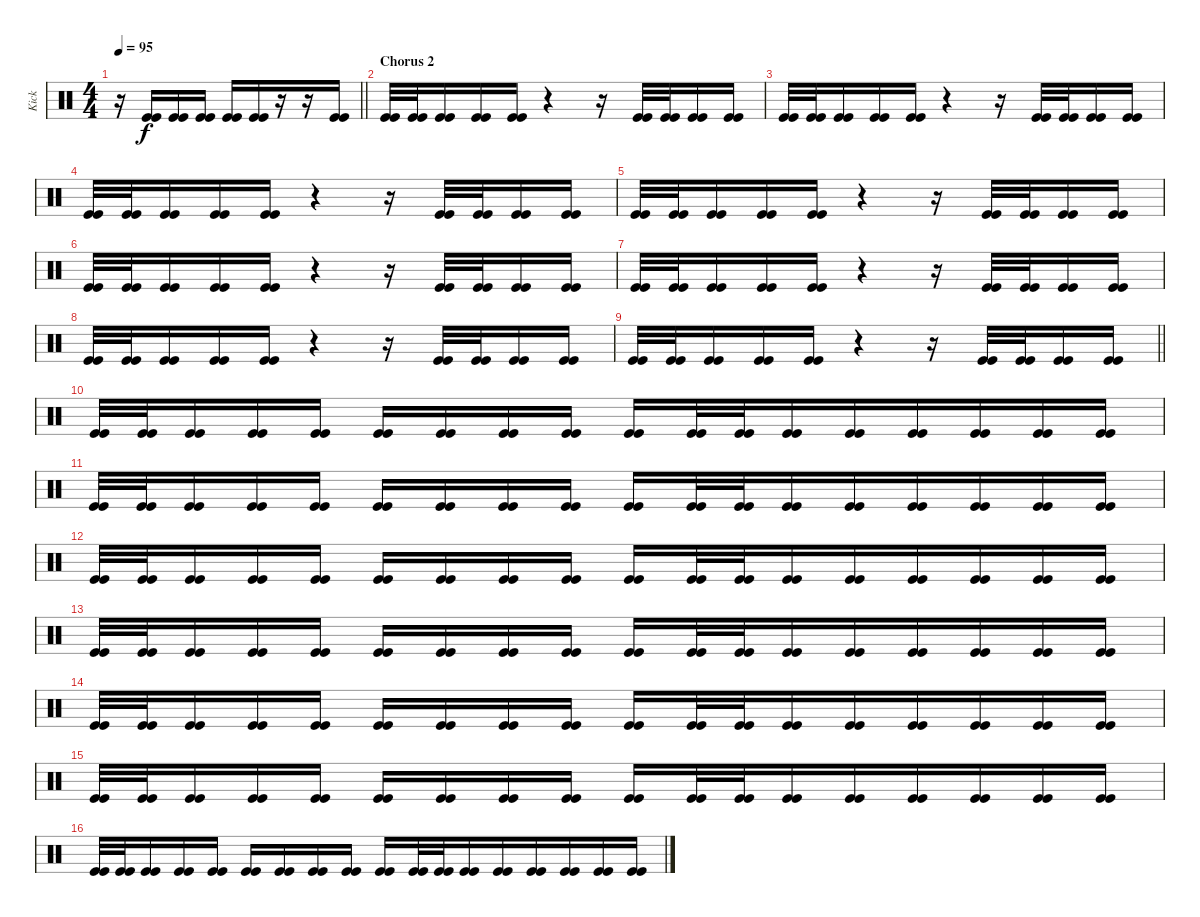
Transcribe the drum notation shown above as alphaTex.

\track ("Kick" "Kick") {instrument percussion}
\staff {score}
\articulation defaults
\ts (4 4)
\tempo 95
\clef neutral
\barLineRight lightlight
\ks c
r.16{dy f beam merge} ("Kick (hit)" "Kick (hit)").16 ("Kick (hit)" "Kick (hit)").16 ("Kick (hit)" "Kick (hit)").16 ("Kick (hit)" "Kick (hit)").16{beam merge} ("Kick (hit)" "Kick (hit)").16{beam merge} r.16{beam merge} r.16{beam merge} ("Kick (hit)" "Kick (hit)").16 |
\section ("" "Chorus 2")
("Kick (hit)" "Kick (hit)").32{beam merge} ("Kick (hit)" "Kick (hit)").32{beam merge} ("Kick (hit)" "Kick (hit)").16 ("Kick (hit)" "Kick (hit)").16 ("Kick (hit)" "Kick (hit)").16 r.4 r.16 ("Kick (hit)" "Kick (hit)").32{beam merge} ("Kick (hit)" "Kick (hit)").32 ("Kick (hit)" "Kick (hit)").16{beam merge} ("Kick (hit)" "Kick (hit)").16 |
("Kick (hit)" "Kick (hit)").32{beam merge} ("Kick (hit)" "Kick (hit)").32{beam merge} ("Kick (hit)" "Kick (hit)").16 ("Kick (hit)" "Kick (hit)").16 ("Kick (hit)" "Kick (hit)").16 r.4 r.16 ("Kick (hit)" "Kick (hit)").32{beam merge} ("Kick (hit)" "Kick (hit)").32 ("Kick (hit)" "Kick (hit)").16{beam merge} ("Kick (hit)" "Kick (hit)").16 |
("Kick (hit)" "Kick (hit)").32{beam merge} ("Kick (hit)" "Kick (hit)").32{beam merge} ("Kick (hit)" "Kick (hit)").16 ("Kick (hit)" "Kick (hit)").16 ("Kick (hit)" "Kick (hit)").16 r.4 r.16 ("Kick (hit)" "Kick (hit)").32{beam merge} ("Kick (hit)" "Kick (hit)").32 ("Kick (hit)" "Kick (hit)").16{beam merge} ("Kick (hit)" "Kick (hit)").16 |
("Kick (hit)" "Kick (hit)").32{beam merge} ("Kick (hit)" "Kick (hit)").32{beam merge} ("Kick (hit)" "Kick (hit)").16 ("Kick (hit)" "Kick (hit)").16 ("Kick (hit)" "Kick (hit)").16 r.4 r.16 ("Kick (hit)" "Kick (hit)").32{beam merge} ("Kick (hit)" "Kick (hit)").32 ("Kick (hit)" "Kick (hit)").16{beam merge} ("Kick (hit)" "Kick (hit)").16 |
("Kick (hit)" "Kick (hit)").32{beam merge} ("Kick (hit)" "Kick (hit)").32{beam merge} ("Kick (hit)" "Kick (hit)").16 ("Kick (hit)" "Kick (hit)").16 ("Kick (hit)" "Kick (hit)").16 r.4 r.16 ("Kick (hit)" "Kick (hit)").32{beam merge} ("Kick (hit)" "Kick (hit)").32 ("Kick (hit)" "Kick (hit)").16{beam merge} ("Kick (hit)" "Kick (hit)").16 |
("Kick (hit)" "Kick (hit)").32{beam merge} ("Kick (hit)" "Kick (hit)").32{beam merge} ("Kick (hit)" "Kick (hit)").16 ("Kick (hit)" "Kick (hit)").16 ("Kick (hit)" "Kick (hit)").16 r.4 r.16 ("Kick (hit)" "Kick (hit)").32{beam merge} ("Kick (hit)" "Kick (hit)").32 ("Kick (hit)" "Kick (hit)").16{beam merge} ("Kick (hit)" "Kick (hit)").16 |
("Kick (hit)" "Kick (hit)").32{beam merge} ("Kick (hit)" "Kick (hit)").32{beam merge} ("Kick (hit)" "Kick (hit)").16 ("Kick (hit)" "Kick (hit)").16 ("Kick (hit)" "Kick (hit)").16 r.4 r.16 ("Kick (hit)" "Kick (hit)").32{beam merge} ("Kick (hit)" "Kick (hit)").32 ("Kick (hit)" "Kick (hit)").16{beam merge} ("Kick (hit)" "Kick (hit)").16 |
\barLineRight lightlight
("Kick (hit)" "Kick (hit)").32{beam merge} ("Kick (hit)" "Kick (hit)").32{beam merge} ("Kick (hit)" "Kick (hit)").16 ("Kick (hit)" "Kick (hit)").16 ("Kick (hit)" "Kick (hit)").16 r.4 r.16 ("Kick (hit)" "Kick (hit)").32{beam merge} ("Kick (hit)" "Kick (hit)").32 ("Kick (hit)" "Kick (hit)").16{beam merge} ("Kick (hit)" "Kick (hit)").16 |
("Kick (hit)" "Kick (hit)").32{beam merge} ("Kick (hit)" "Kick (hit)").32{beam merge} ("Kick (hit)" "Kick (hit)").16 ("Kick (hit)" "Kick (hit)").16 ("Kick (hit)" "Kick (hit)").16 ("Kick (hit)" "Kick (hit)").16 ("Kick (hit)" "Kick (hit)").16 ("Kick (hit)" "Kick (hit)").16 ("Kick (hit)" "Kick (hit)").16 ("Kick (hit)" "Kick (hit)").16 ("Kick (hit)" "Kick (hit)").32{beam merge} ("Kick (hit)" "Kick (hit)").32 ("Kick (hit)" "Kick (hit)").16{beam merge} ("Kick (hit)" "Kick (hit)").16{beam merge} ("Kick (hit)" "Kick (hit)").16{beam merge} ("Kick (hit)" "Kick (hit)").16 ("Kick (hit)" "Kick (hit)").16 ("Kick (hit)" "Kick (hit)").16 |
("Kick (hit)" "Kick (hit)").32{beam merge} ("Kick (hit)" "Kick (hit)").32{beam merge} ("Kick (hit)" "Kick (hit)").16 ("Kick (hit)" "Kick (hit)").16 ("Kick (hit)" "Kick (hit)").16 ("Kick (hit)" "Kick (hit)").16 ("Kick (hit)" "Kick (hit)").16 ("Kick (hit)" "Kick (hit)").16 ("Kick (hit)" "Kick (hit)").16 ("Kick (hit)" "Kick (hit)").16 ("Kick (hit)" "Kick (hit)").32{beam merge} ("Kick (hit)" "Kick (hit)").32 ("Kick (hit)" "Kick (hit)").16{beam merge} ("Kick (hit)" "Kick (hit)").16{beam merge} ("Kick (hit)" "Kick (hit)").16{beam merge} ("Kick (hit)" "Kick (hit)").16 ("Kick (hit)" "Kick (hit)").16 ("Kick (hit)" "Kick (hit)").16 |
("Kick (hit)" "Kick (hit)").32{beam merge} ("Kick (hit)" "Kick (hit)").32{beam merge} ("Kick (hit)" "Kick (hit)").16 ("Kick (hit)" "Kick (hit)").16 ("Kick (hit)" "Kick (hit)").16 ("Kick (hit)" "Kick (hit)").16 ("Kick (hit)" "Kick (hit)").16 ("Kick (hit)" "Kick (hit)").16 ("Kick (hit)" "Kick (hit)").16 ("Kick (hit)" "Kick (hit)").16 ("Kick (hit)" "Kick (hit)").32{beam merge} ("Kick (hit)" "Kick (hit)").32 ("Kick (hit)" "Kick (hit)").16{beam merge} ("Kick (hit)" "Kick (hit)").16{beam merge} ("Kick (hit)" "Kick (hit)").16{beam merge} ("Kick (hit)" "Kick (hit)").16 ("Kick (hit)" "Kick (hit)").16 ("Kick (hit)" "Kick (hit)").16 |
("Kick (hit)" "Kick (hit)").32{beam merge} ("Kick (hit)" "Kick (hit)").32{beam merge} ("Kick (hit)" "Kick (hit)").16 ("Kick (hit)" "Kick (hit)").16 ("Kick (hit)" "Kick (hit)").16 ("Kick (hit)" "Kick (hit)").16 ("Kick (hit)" "Kick (hit)").16 ("Kick (hit)" "Kick (hit)").16 ("Kick (hit)" "Kick (hit)").16 ("Kick (hit)" "Kick (hit)").16 ("Kick (hit)" "Kick (hit)").32{beam merge} ("Kick (hit)" "Kick (hit)").32 ("Kick (hit)" "Kick (hit)").16{beam merge} ("Kick (hit)" "Kick (hit)").16{beam merge} ("Kick (hit)" "Kick (hit)").16{beam merge} ("Kick (hit)" "Kick (hit)").16 ("Kick (hit)" "Kick (hit)").16 ("Kick (hit)" "Kick (hit)").16 |
("Kick (hit)" "Kick (hit)").32{beam merge} ("Kick (hit)" "Kick (hit)").32{beam merge} ("Kick (hit)" "Kick (hit)").16 ("Kick (hit)" "Kick (hit)").16 ("Kick (hit)" "Kick (hit)").16 ("Kick (hit)" "Kick (hit)").16 ("Kick (hit)" "Kick (hit)").16 ("Kick (hit)" "Kick (hit)").16 ("Kick (hit)" "Kick (hit)").16 ("Kick (hit)" "Kick (hit)").16 ("Kick (hit)" "Kick (hit)").32{beam merge} ("Kick (hit)" "Kick (hit)").32 ("Kick (hit)" "Kick (hit)").16{beam merge} ("Kick (hit)" "Kick (hit)").16{beam merge} ("Kick (hit)" "Kick (hit)").16{beam merge} ("Kick (hit)" "Kick (hit)").16 ("Kick (hit)" "Kick (hit)").16 ("Kick (hit)" "Kick (hit)").16 |
("Kick (hit)" "Kick (hit)").32{beam merge} ("Kick (hit)" "Kick (hit)").32{beam merge} ("Kick (hit)" "Kick (hit)").16 ("Kick (hit)" "Kick (hit)").16 ("Kick (hit)" "Kick (hit)").16 ("Kick (hit)" "Kick (hit)").16 ("Kick (hit)" "Kick (hit)").16 ("Kick (hit)" "Kick (hit)").16 ("Kick (hit)" "Kick (hit)").16 ("Kick (hit)" "Kick (hit)").16 ("Kick (hit)" "Kick (hit)").32{beam merge} ("Kick (hit)" "Kick (hit)").32 ("Kick (hit)" "Kick (hit)").16{beam merge} ("Kick (hit)" "Kick (hit)").16{beam merge} ("Kick (hit)" "Kick (hit)").16{beam merge} ("Kick (hit)" "Kick (hit)").16 ("Kick (hit)" "Kick (hit)").16 ("Kick (hit)" "Kick (hit)").16 |
("Kick (hit)" "Kick (hit)").32{beam merge} ("Kick (hit)" "Kick (hit)").32{beam merge} ("Kick (hit)" "Kick (hit)").16 ("Kick (hit)" "Kick (hit)").16 ("Kick (hit)" "Kick (hit)").16 ("Kick (hit)" "Kick (hit)").16 ("Kick (hit)" "Kick (hit)").16 ("Kick (hit)" "Kick (hit)").16 ("Kick (hit)" "Kick (hit)").16 ("Kick (hit)" "Kick (hit)").16 ("Kick (hit)" "Kick (hit)").32{beam merge} ("Kick (hit)" "Kick (hit)").32 ("Kick (hit)" "Kick (hit)").16{beam merge} ("Kick (hit)" "Kick (hit)").16{beam merge} ("Kick (hit)" "Kick (hit)").16{beam merge} ("Kick (hit)" "Kick (hit)").16 ("Kick (hit)" "Kick (hit)").16 ("Kick (hit)" "Kick (hit)").16
